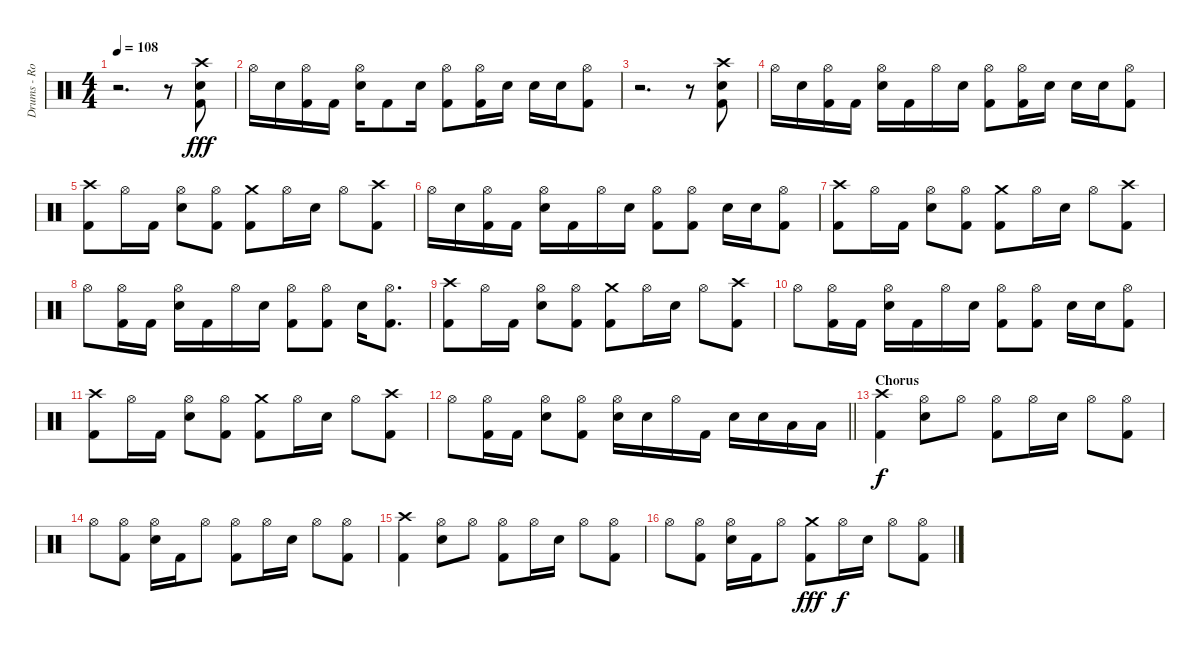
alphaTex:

\track ("Drums - Rob Bourdon" "Drums - Ro") {instrument percussion}
\staff {score}
\articulation defaults
\ts (4 4)
\tempo 108
\clef neutral
\ks c
r.2{d dy f} r.8 ("Crash high (hit)" "Snare (hit) 2" "Kick (hit) 2").8{dy fff} |
"Hi-Hat (open)".16 "Snare (hit) 2".16 ("Hi-Hat (open)" "Kick (hit) 2").16 "Kick (hit) 2".16 ("Hi-Hat (open)" "Snare (hit) 2").16 "Kick (hit) 2".8 "Snare (hit) 2".16 ("Hi-Hat (open)" "Kick (hit) 2").8 ("Hi-Hat (open)" "Kick (hit) 2").16 "Snare (hit) 2".16 "Snare (hit) 2".16 "Snare (hit) 2".16 ("Hi-Hat (open)" "Kick (hit) 2").8 |
r.2{d} r.8 ("Crash high (hit)" "Snare (hit) 2" "Kick (hit) 2").8 |
"Hi-Hat (open)".16 "Snare (hit) 2".16 ("Hi-Hat (open)" "Kick (hit) 2").16 "Kick (hit) 2".16 ("Hi-Hat (open)" "Snare (hit) 2").16 "Kick (hit) 2".16 "Hi-Hat (open)".16 "Snare (hit) 2".16 ("Hi-Hat (open)" "Kick (hit) 2").8 ("Hi-Hat (open)" "Kick (hit) 2").16 "Snare (hit) 2".16 "Snare (hit) 2".16 "Snare (hit) 2".16 ("Hi-Hat (open)" "Kick (hit) 2").8 |
("Crash high (hit)" "Kick (hit) 2").8 "Hi-Hat (open)".16 "Kick (hit) 2".16 ("Hi-Hat (open)" "Snare (hit) 2").8 ("Hi-Hat (open)" "Kick (hit) 2").8 ("Crash medium (hit)" "Kick (hit) 2").8 "Hi-Hat (open)".16 "Snare (hit) 2".16 "Hi-Hat (open)".8 ("Crash high (hit)" "Kick (hit) 2").8 |
"Hi-Hat (open)".16 "Snare (hit) 2".16 ("Hi-Hat (open)" "Kick (hit) 2").16 "Kick (hit) 2".16 ("Hi-Hat (open)" "Snare (hit) 2").16 "Kick (hit) 2".16 "Hi-Hat (open)".16 "Snare (hit) 2".16 ("Hi-Hat (open)" "Kick (hit) 2").8 ("Hi-Hat (open)" "Kick (hit) 2").8 "Snare (hit) 2".16 "Snare (hit) 2".16 ("Hi-Hat (open)" "Kick (hit) 2").8 |
("Crash high (hit)" "Kick (hit) 2").8 "Hi-Hat (open)".16 "Kick (hit) 2".16 ("Hi-Hat (open)" "Snare (hit) 2").8 ("Hi-Hat (open)" "Kick (hit) 2").8 ("Crash medium (hit)" "Kick (hit) 2").8 "Hi-Hat (open)".16 "Snare (hit) 2".16 "Hi-Hat (open)".8 ("Crash high (hit)" "Kick (hit) 2").8 |
"Hi-Hat (open)".8 ("Hi-Hat (open)" "Kick (hit) 2").16 "Kick (hit) 2".16 ("Hi-Hat (open)" "Snare (hit) 2").16 "Kick (hit) 2".16 "Hi-Hat (open)".16 "Snare (hit) 2".16 ("Hi-Hat (open)" "Kick (hit) 2").8 ("Hi-Hat (open)" "Kick (hit) 2").8 "Snare (hit) 2".16 ("Hi-Hat (open)" "Kick (hit) 2").8{d} |
("Crash high (hit)" "Kick (hit) 2").8 "Hi-Hat (open)".16 "Kick (hit) 2".16 ("Hi-Hat (open)" "Snare (hit) 2").8 ("Hi-Hat (open)" "Kick (hit) 2").8 ("Crash medium (hit)" "Kick (hit) 2").8 "Hi-Hat (open)".16 "Snare (hit) 2".16 "Hi-Hat (open)".8 ("Crash high (hit)" "Kick (hit) 2").8 |
"Hi-Hat (open)".8 ("Hi-Hat (open)" "Kick (hit) 2").16 "Kick (hit) 2".16 ("Hi-Hat (open)" "Snare (hit) 2").16 "Kick (hit) 2".16 "Hi-Hat (open)".16 "Snare (hit) 2".16 ("Hi-Hat (open)" "Kick (hit) 2").8 ("Hi-Hat (open)" "Kick (hit) 2").8 "Snare (hit) 2".16 "Snare (hit) 2".16 ("Hi-Hat (open)" "Kick (hit) 2").8 |
("Crash high (hit)" "Kick (hit) 2").8 "Hi-Hat (open)".16 "Kick (hit) 2".16 ("Hi-Hat (open)" "Snare (hit) 2").8 ("Hi-Hat (open)" "Kick (hit) 2").8 ("Crash medium (hit)" "Kick (hit) 2").8 "Hi-Hat (open)".16 "Snare (hit) 2".16 "Hi-Hat (open)".8 ("Crash high (hit)" "Kick (hit) 2").8 |
\barLineRight lightlight "Hi-Hat (open)".8
("Hi-Hat (open)" "Kick (hit) 2").16 "Kick (hit) 2".16 ("Hi-Hat (open)" "Snare (hit) 2").8 ("Hi-Hat (open)" "Kick (hit) 2").8 ("Hi-Hat (open)" "Snare (hit) 2").16 "Snare (hit) 2".16 "Hi-Hat (open)".16 "Kick (hit) 2".16 "Snare (hit) 2".16 "Snare (hit) 2".16 "Low Tom (hit)".16 "Low Tom (hit)".16 |
\section ("" "Chorus")
("Crash high (hit)" "Kick (hit) 2").4{dy f} ("Hi-Hat (open)" "Snare (hit) 2").8 "Hi-Hat (open)".8 ("Hi-Hat (open)" "Kick (hit) 2").8 "Hi-Hat (open)".16 "Snare (hit) 2".16 "Hi-Hat (open)".8 ("Hi-Hat (open)" "Kick (hit) 2").8 |
"Hi-Hat (open)".8 ("Hi-Hat (open)" "Kick (hit) 2").8 ("Hi-Hat (open)" "Snare (hit) 2").16 "Kick (hit) 2".16 "Hi-Hat (open)".8 ("Hi-Hat (open)" "Kick (hit) 2").8 "Hi-Hat (open)".16 "Snare (hit) 2".16 "Hi-Hat (open)".8 ("Hi-Hat (open)" "Kick (hit) 2").8 |
("Crash high (hit)" "Kick (hit) 2").4 ("Hi-Hat (open)" "Snare (hit) 2").8 "Hi-Hat (open)".8 ("Hi-Hat (open)" "Kick (hit) 2").8 "Hi-Hat (open)".16 "Snare (hit) 2".16 "Hi-Hat (open)".8 ("Hi-Hat (open)" "Kick (hit) 2").8 |
"Hi-Hat (open)".8 ("Hi-Hat (open)" "Kick (hit) 2").8 ("Hi-Hat (open)" "Snare (hit) 2").16 "Kick (hit) 2".16 "Hi-Hat (open)".8 ("Crash medium (hit)" "Kick (hit) 2").8{dy fff} "Hi-Hat (open)".16{dy f} "Snare (hit) 2".16 "Hi-Hat (open)".8 ("Hi-Hat (open)" "Kick (hit) 2").8
